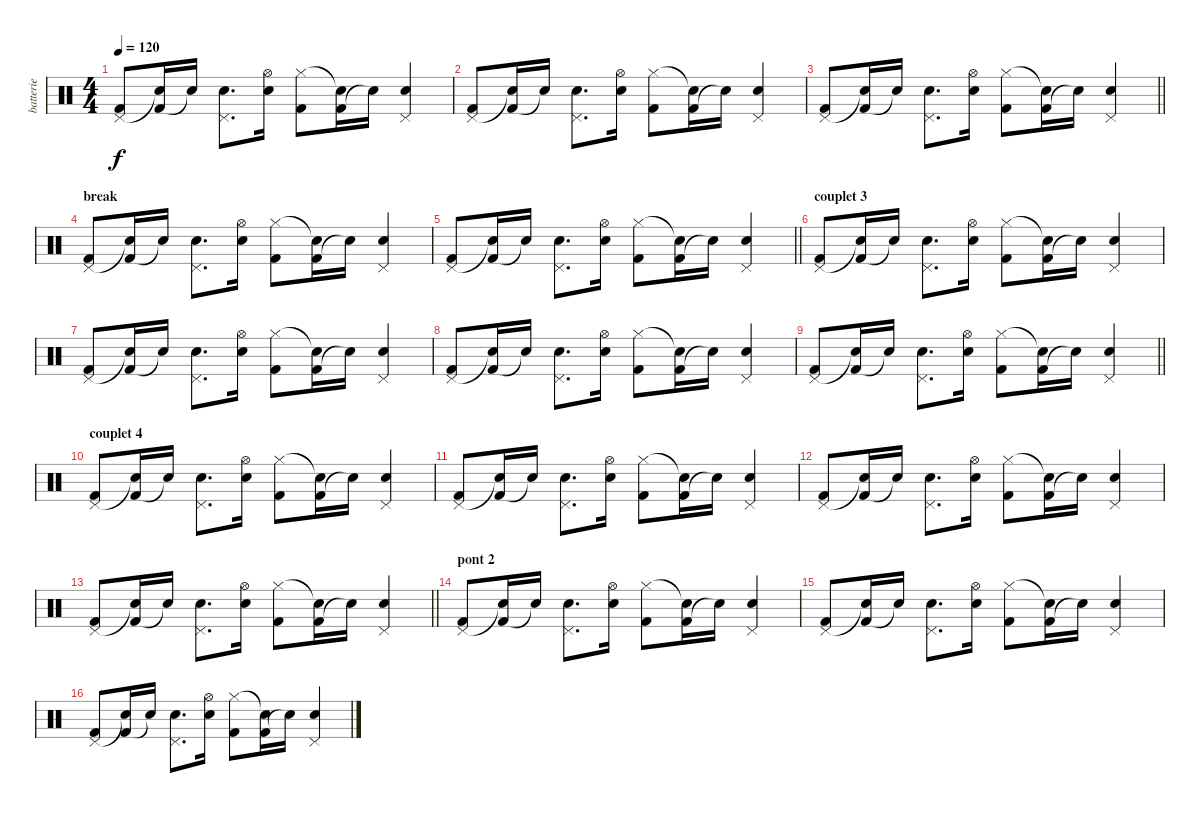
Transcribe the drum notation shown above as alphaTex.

\track ("batterie" "batterie") {instrument percussion}
\staff {score}
\articulation defaults
\ts (4 4)
\tempo 120
\clef neutral
\ks c
("Kick (hit) 2" "Pedal Hi-Hat (hit)").8{dy f} ("Kick (hit) 2" "Snare (hit)"{t}).16 "Snare (hit)"{t}.16 ("Snare (hit) 2" "Pedal Hi-Hat (hit)").8{d} ("Snare (hit) 2" "Hi-Hat (open)").16 ("Kick (hit) 2" "Hi-Hat (closed)").8 ("Kick (hit) 2" "Snare (hit)"{t}).16 "Snare (hit)"{t}.16 ("Snare (hit) 2" "Pedal Hi-Hat (hit)").4 |
("Kick (hit) 2" "Pedal Hi-Hat (hit)").8 ("Kick (hit) 2" "Snare (hit)"{t}).16 "Snare (hit)"{t}.16 ("Snare (hit) 2" "Pedal Hi-Hat (hit)").8{d} ("Snare (hit) 2" "Hi-Hat (open)").16 ("Kick (hit) 2" "Hi-Hat (closed)").8 ("Kick (hit) 2" "Snare (hit)"{t}).16 "Snare (hit)"{t}.16 ("Snare (hit) 2" "Pedal Hi-Hat (hit)").4 |
\barLineRight lightlight
("Kick (hit) 2" "Pedal Hi-Hat (hit)").8 ("Kick (hit) 2" "Snare (hit)"{t}).16 "Snare (hit)"{t}.16 ("Snare (hit) 2" "Pedal Hi-Hat (hit)").8{d} ("Snare (hit) 2" "Hi-Hat (open)").16 ("Kick (hit) 2" "Hi-Hat (closed)").8 ("Kick (hit) 2" "Snare (hit)"{t}).16 "Snare (hit)"{t}.16 ("Snare (hit) 2" "Pedal Hi-Hat (hit)").4 |
\section ("" "break")
("Kick (hit) 2" "Pedal Hi-Hat (hit)").8 ("Kick (hit) 2" "Snare (hit)"{t}).16 "Snare (hit)"{t}.16 ("Snare (hit) 2" "Pedal Hi-Hat (hit)").8{d} ("Snare (hit) 2" "Hi-Hat (open)").16 ("Kick (hit) 2" "Hi-Hat (closed)").8 ("Kick (hit) 2" "Snare (hit)"{t}).16 "Snare (hit)"{t}.16 ("Snare (hit) 2" "Pedal Hi-Hat (hit)").4 |
\barLineRight lightlight
("Kick (hit) 2" "Pedal Hi-Hat (hit)").8 ("Kick (hit) 2" "Snare (hit)"{t}).16 "Snare (hit)"{t}.16 ("Snare (hit) 2" "Pedal Hi-Hat (hit)").8{d} ("Snare (hit) 2" "Hi-Hat (open)").16 ("Kick (hit) 2" "Hi-Hat (closed)").8 ("Kick (hit) 2" "Snare (hit)"{t}).16 "Snare (hit)"{t}.16 ("Snare (hit) 2" "Pedal Hi-Hat (hit)").4 |
\section ("" "couplet 3")
("Kick (hit) 2" "Pedal Hi-Hat (hit)").8 ("Kick (hit) 2" "Snare (hit)"{t}).16 "Snare (hit)"{t}.16 ("Snare (hit) 2" "Pedal Hi-Hat (hit)").8{d} ("Snare (hit) 2" "Hi-Hat (open)").16 ("Kick (hit) 2" "Hi-Hat (closed)").8 ("Kick (hit) 2" "Snare (hit)"{t}).16 "Snare (hit)"{t}.16 ("Snare (hit) 2" "Pedal Hi-Hat (hit)").4 |
("Kick (hit) 2" "Pedal Hi-Hat (hit)").8 ("Kick (hit) 2" "Snare (hit)"{t}).16 "Snare (hit)"{t}.16 ("Snare (hit) 2" "Pedal Hi-Hat (hit)").8{d} ("Snare (hit) 2" "Hi-Hat (open)").16 ("Kick (hit) 2" "Hi-Hat (closed)").8 ("Kick (hit) 2" "Snare (hit)"{t}).16 "Snare (hit)"{t}.16 ("Snare (hit) 2" "Pedal Hi-Hat (hit)").4 |
("Kick (hit) 2" "Pedal Hi-Hat (hit)").8 ("Kick (hit) 2" "Snare (hit)"{t}).16 "Snare (hit)"{t}.16 ("Snare (hit) 2" "Pedal Hi-Hat (hit)").8{d} ("Snare (hit) 2" "Hi-Hat (open)").16 ("Kick (hit) 2" "Hi-Hat (closed)").8 ("Kick (hit) 2" "Snare (hit)"{t}).16 "Snare (hit)"{t}.16 ("Snare (hit) 2" "Pedal Hi-Hat (hit)").4 |
\barLineRight lightlight
("Kick (hit) 2" "Pedal Hi-Hat (hit)").8 ("Kick (hit) 2" "Snare (hit)"{t}).16 "Snare (hit)"{t}.16 ("Snare (hit) 2" "Pedal Hi-Hat (hit)").8{d} ("Snare (hit) 2" "Hi-Hat (open)").16 ("Kick (hit) 2" "Hi-Hat (closed)").8 ("Kick (hit) 2" "Snare (hit)"{t}).16 "Snare (hit)"{t}.16 ("Snare (hit) 2" "Pedal Hi-Hat (hit)").4 |
\section ("" "couplet 4")
("Kick (hit) 2" "Pedal Hi-Hat (hit)").8 ("Kick (hit) 2" "Snare (hit)"{t}).16 "Snare (hit)"{t}.16 ("Snare (hit) 2" "Pedal Hi-Hat (hit)").8{d} ("Snare (hit) 2" "Hi-Hat (open)").16 ("Kick (hit) 2" "Hi-Hat (closed)").8 ("Kick (hit) 2" "Snare (hit)"{t}).16 "Snare (hit)"{t}.16 ("Snare (hit) 2" "Pedal Hi-Hat (hit)").4 |
("Kick (hit) 2" "Pedal Hi-Hat (hit)").8 ("Kick (hit) 2" "Snare (hit)"{t}).16 "Snare (hit)"{t}.16 ("Snare (hit) 2" "Pedal Hi-Hat (hit)").8{d} ("Snare (hit) 2" "Hi-Hat (open)").16 ("Kick (hit) 2" "Hi-Hat (closed)").8 ("Kick (hit) 2" "Snare (hit)"{t}).16 "Snare (hit)"{t}.16 ("Snare (hit) 2" "Pedal Hi-Hat (hit)").4 |
("Kick (hit) 2" "Pedal Hi-Hat (hit)").8 ("Kick (hit) 2" "Snare (hit)"{t}).16 "Snare (hit)"{t}.16 ("Snare (hit) 2" "Pedal Hi-Hat (hit)").8{d} ("Snare (hit) 2" "Hi-Hat (open)").16 ("Kick (hit) 2" "Hi-Hat (closed)").8 ("Kick (hit) 2" "Snare (hit)"{t}).16 "Snare (hit)"{t}.16 ("Snare (hit) 2" "Pedal Hi-Hat (hit)").4 |
\barLineRight lightlight
("Kick (hit) 2" "Pedal Hi-Hat (hit)").8 ("Kick (hit) 2" "Snare (hit)"{t}).16 "Snare (hit)"{t}.16 ("Snare (hit) 2" "Pedal Hi-Hat (hit)").8{d} ("Snare (hit) 2" "Hi-Hat (open)").16 ("Kick (hit) 2" "Hi-Hat (closed)").8 ("Kick (hit) 2" "Snare (hit)"{t}).16 "Snare (hit)"{t}.16 ("Snare (hit) 2" "Pedal Hi-Hat (hit)").4 |
\section ("" "pont 2")
("Kick (hit) 2" "Pedal Hi-Hat (hit)").8 ("Kick (hit) 2" "Snare (hit)"{t}).16 "Snare (hit)"{t}.16 ("Snare (hit) 2" "Pedal Hi-Hat (hit)").8{d} ("Snare (hit) 2" "Hi-Hat (open)").16 ("Kick (hit) 2" "Hi-Hat (closed)").8 ("Kick (hit) 2" "Snare (hit)"{t}).16 "Snare (hit)"{t}.16 ("Snare (hit) 2" "Pedal Hi-Hat (hit)").4 |
("Kick (hit) 2" "Pedal Hi-Hat (hit)").8 ("Kick (hit) 2" "Snare (hit)"{t}).16 "Snare (hit)"{t}.16 ("Snare (hit) 2" "Pedal Hi-Hat (hit)").8{d} ("Snare (hit) 2" "Hi-Hat (open)").16 ("Kick (hit) 2" "Hi-Hat (closed)").8 ("Kick (hit) 2" "Snare (hit)"{t}).16 "Snare (hit)"{t}.16 ("Snare (hit) 2" "Pedal Hi-Hat (hit)").4 |
("Kick (hit) 2" "Pedal Hi-Hat (hit)").8 ("Kick (hit) 2" "Snare (hit)"{t}).16 "Snare (hit)"{t}.16 ("Snare (hit) 2" "Pedal Hi-Hat (hit)").8{d} ("Snare (hit) 2" "Hi-Hat (open)").16 ("Kick (hit) 2" "Hi-Hat (closed)").8 ("Kick (hit) 2" "Snare (hit)"{t}).16 "Snare (hit)"{t}.16 ("Snare (hit) 2" "Pedal Hi-Hat (hit)").4
